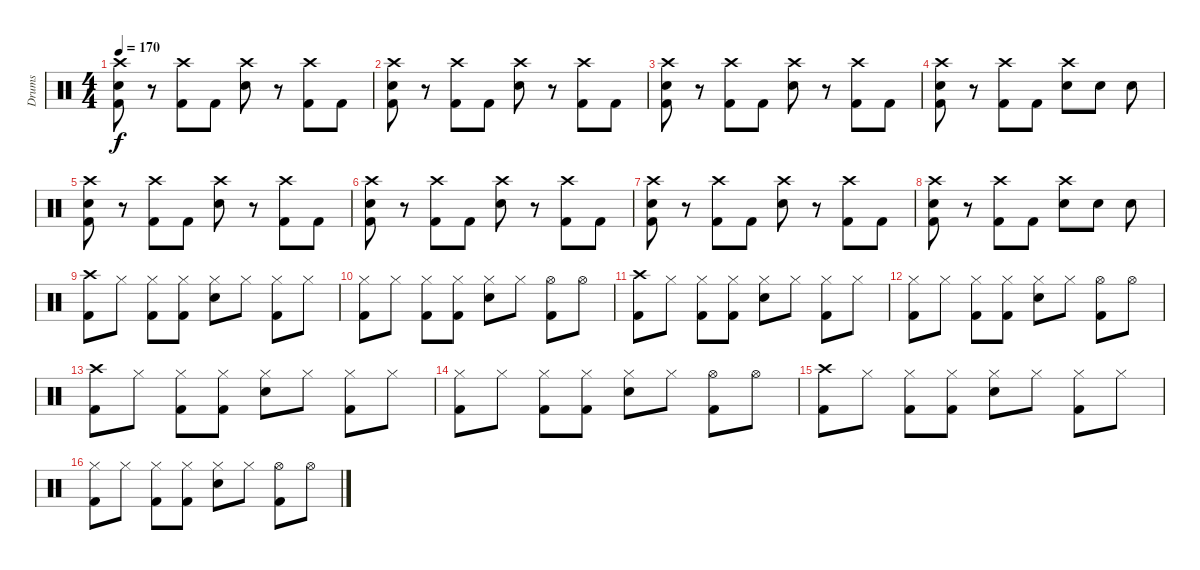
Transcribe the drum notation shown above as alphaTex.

\track ("Drums" "Drums") {instrument percussion}
\staff {score}
\articulation defaults
\ts (4 4)
\tempo 170
\clef neutral
\ks c
("Crash high (hit)" "Snare (hit) 2" "Kick (hit) 2").8{dy f} r.8 ("Crash high (hit)" "Kick (hit) 2").8 "Kick (hit) 2".8 ("Crash high (hit)" "Snare (hit) 2").8 r.8 ("Crash high (hit)" "Kick (hit) 2").8 "Kick (hit) 2".8 |
("Crash high (hit)" "Snare (hit) 2" "Kick (hit) 2").8 r.8 ("Crash high (hit)" "Kick (hit) 2").8 "Kick (hit) 2".8 ("Crash high (hit)" "Snare (hit) 2").8 r.8 ("Crash high (hit)" "Kick (hit) 2").8 "Kick (hit) 2".8 |
("Crash high (hit)" "Snare (hit) 2" "Kick (hit) 2").8 r.8 ("Crash high (hit)" "Kick (hit) 2").8 "Kick (hit) 2".8 ("Crash high (hit)" "Snare (hit) 2").8 r.8 ("Crash high (hit)" "Kick (hit) 2").8 "Kick (hit) 2".8 |
("Crash high (hit)" "Snare (hit) 2" "Kick (hit) 2").8 r.8 ("Crash high (hit)" "Kick (hit) 2").8 "Kick (hit) 2".8 ("Crash high (hit)" "Snare (hit) 2").8 "Snare (hit) 2".8 "Snare (hit) 2".8 |
("Crash high (hit)" "Snare (hit) 2" "Kick (hit) 2").8 r.8 ("Crash high (hit)" "Kick (hit) 2").8 "Kick (hit) 2".8 ("Crash high (hit)" "Snare (hit) 2").8 r.8 ("Crash high (hit)" "Kick (hit) 2").8 "Kick (hit) 2".8 |
("Crash high (hit)" "Snare (hit) 2" "Kick (hit) 2").8 r.8 ("Crash high (hit)" "Kick (hit) 2").8 "Kick (hit) 2".8 ("Crash high (hit)" "Snare (hit) 2").8 r.8 ("Crash high (hit)" "Kick (hit) 2").8 "Kick (hit) 2".8 |
("Crash high (hit)" "Snare (hit) 2" "Kick (hit) 2").8 r.8 ("Crash high (hit)" "Kick (hit) 2").8 "Kick (hit) 2".8 ("Crash high (hit)" "Snare (hit) 2").8 r.8 ("Crash high (hit)" "Kick (hit) 2").8 "Kick (hit) 2".8 |
("Crash high (hit)" "Snare (hit) 2" "Kick (hit) 2").8 r.8 ("Crash high (hit)" "Kick (hit) 2").8 "Kick (hit) 2".8 ("Crash high (hit)" "Snare (hit) 2").8 "Snare (hit) 2".8 "Snare (hit) 2".8 |
("Crash high (hit)" "Kick (hit) 2").8 "Hi-Hat (closed)".8 ("Hi-Hat (closed)" "Kick (hit) 2").8 ("Hi-Hat (closed)" "Kick (hit) 2").8 ("Hi-Hat (closed)" "Snare (hit) 2").8 "Hi-Hat (closed)".8 ("Hi-Hat (closed)" "Kick (hit) 2").8 "Hi-Hat (closed)".8 |
("Hi-Hat (closed)" "Kick (hit) 2").8 "Hi-Hat (closed)".8 ("Hi-Hat (closed)" "Kick (hit) 2").8 ("Hi-Hat (closed)" "Kick (hit) 2").8 ("Hi-Hat (closed)" "Snare (hit) 2").8 "Hi-Hat (closed)".8 ("Hi-Hat (open)" "Kick (hit) 2").8 "Hi-Hat (open)".8 |
("Crash high (hit)" "Kick (hit) 2").8 "Hi-Hat (closed)".8 ("Hi-Hat (closed)" "Kick (hit) 2").8 ("Hi-Hat (closed)" "Kick (hit) 2").8 ("Hi-Hat (closed)" "Snare (hit) 2").8 "Hi-Hat (closed)".8 ("Hi-Hat (closed)" "Kick (hit) 2").8 "Hi-Hat (closed)".8 |
("Hi-Hat (closed)" "Kick (hit) 2").8 "Hi-Hat (closed)".8 ("Hi-Hat (closed)" "Kick (hit) 2").8 ("Hi-Hat (closed)" "Kick (hit) 2").8 ("Hi-Hat (closed)" "Snare (hit) 2").8 "Hi-Hat (closed)".8 ("Hi-Hat (open)" "Kick (hit) 2").8 "Hi-Hat (open)".8 |
("Crash high (hit)" "Kick (hit) 2").8 "Hi-Hat (closed)".8 ("Hi-Hat (closed)" "Kick (hit) 2").8 ("Hi-Hat (closed)" "Kick (hit) 2").8 ("Hi-Hat (closed)" "Snare (hit) 2").8 "Hi-Hat (closed)".8 ("Hi-Hat (closed)" "Kick (hit) 2").8 "Hi-Hat (closed)".8 |
("Hi-Hat (closed)" "Kick (hit) 2").8 "Hi-Hat (closed)".8 ("Hi-Hat (closed)" "Kick (hit) 2").8 ("Hi-Hat (closed)" "Kick (hit) 2").8 ("Hi-Hat (closed)" "Snare (hit) 2").8 "Hi-Hat (closed)".8 ("Hi-Hat (open)" "Kick (hit) 2").8 "Hi-Hat (open)".8 |
("Crash high (hit)" "Kick (hit) 2").8 "Hi-Hat (closed)".8 ("Hi-Hat (closed)" "Kick (hit) 2").8 ("Hi-Hat (closed)" "Kick (hit) 2").8 ("Hi-Hat (closed)" "Snare (hit) 2").8 "Hi-Hat (closed)".8 ("Hi-Hat (closed)" "Kick (hit) 2").8 "Hi-Hat (closed)".8 |
("Hi-Hat (closed)" "Kick (hit) 2").8 "Hi-Hat (closed)".8 ("Hi-Hat (closed)" "Kick (hit) 2").8 ("Hi-Hat (closed)" "Kick (hit) 2").8 ("Hi-Hat (closed)" "Snare (hit) 2").8 "Hi-Hat (closed)".8 ("Hi-Hat (open)" "Kick (hit) 2").8 "Hi-Hat (open)".8
